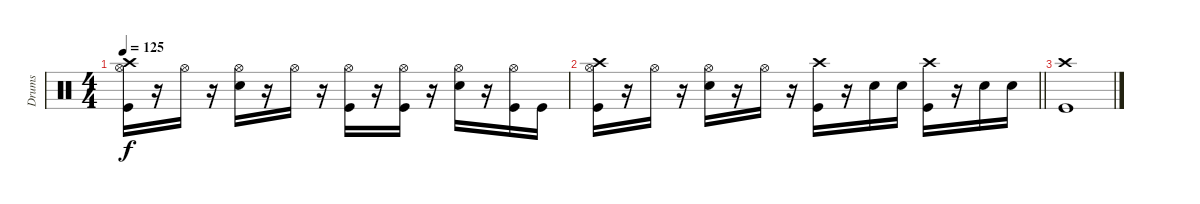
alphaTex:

\track ("Drums" "Drums") {instrument percussion}
\staff {score}
\articulation defaults
\ts (4 4)
\tempo 125
\clef neutral
\ks c
("Crash high (hit)" "Hi-Hat (open)" "Kick (hit)").16{dy f} r.16 "Hi-Hat (open)".16 r.16 ("Hi-Hat (open)" "Snare (hit) 2").16 r.16 "Hi-Hat (open)".16 r.16 ("Hi-Hat (open)" "Kick (hit)").16 r.16 ("Hi-Hat (open)" "Kick (hit)").16 r.16 ("Hi-Hat (open)" "Snare (hit) 2").16 r.16 ("Hi-Hat (open)" "Kick (hit)").16 "Kick (hit)".16 |
\barLineRight lightlight
("Crash high (hit)" "Hi-Hat (open)" "Kick (hit)").16 r.16 "Hi-Hat (open)".16 r.16 ("Hi-Hat (open)" "Snare (hit) 2").16 r.16 "Hi-Hat (open)".16 r.16 ("Crash high (hit)" "Kick (hit)").16 r.16 "Snare (hit) 2".16 "Snare (hit) 2".16 ("Crash high (hit)" "Kick (hit)").16 r.16 "Snare (hit) 2".16 "Snare (hit) 2".16 |
("Crash high (hit)" "Kick (hit)").1
